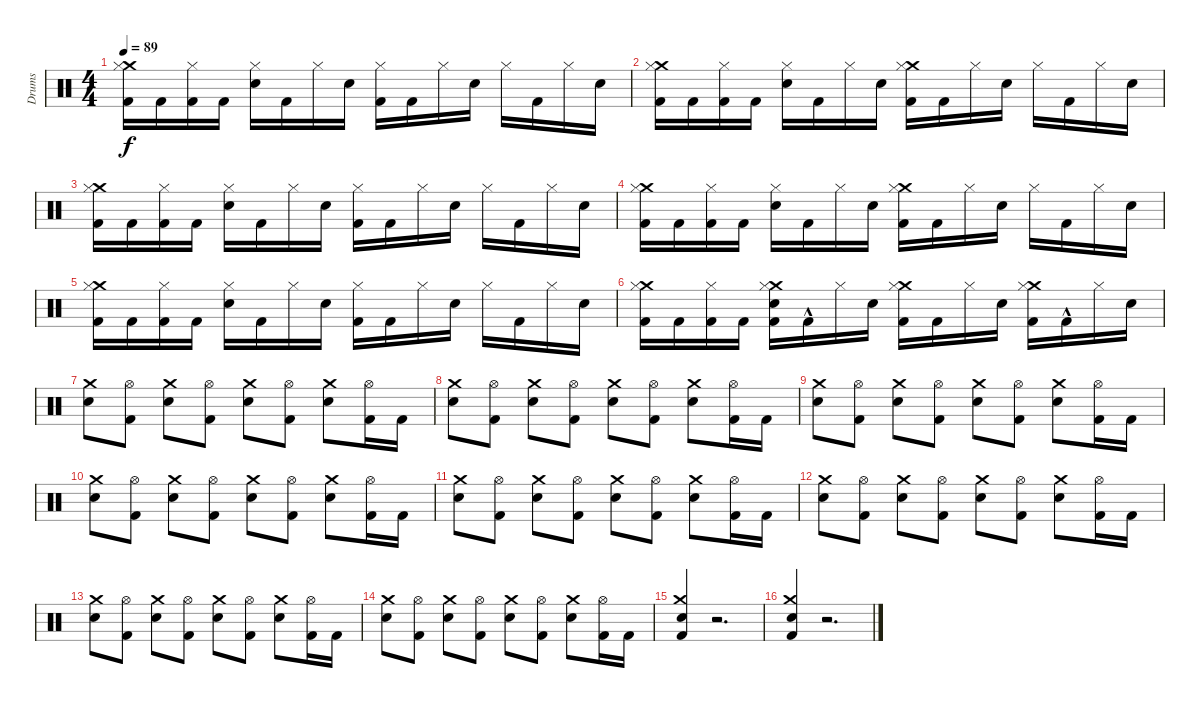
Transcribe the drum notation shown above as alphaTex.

\track ("Drums" "Drums") {instrument percussion}
\staff {score}
\articulation defaults
\ts (4 4)
\tempo 89
\clef neutral
\ks c
("Kick (hit) 2" "Crash medium (hit)" "Hi-Hat (closed)").16{dy f} "Kick (hit) 2".16 ("Kick (hit) 2" "Hi-Hat (closed)").16 "Kick (hit) 2".16 ("Snare (hit) 2" "Hi-Hat (closed)").16 "Kick (hit) 2".16 "Hi-Hat (closed)".16 "Snare (hit) 2".16 ("Kick (hit) 2" "Hi-Hat (closed)").16 "Kick (hit) 2".16 "Hi-Hat (closed)".16 "Snare (hit) 2".16 "Hi-Hat (closed)".16 "Kick (hit) 2".16 "Hi-Hat (closed)".16 "Snare (hit) 2".16 |
("Kick (hit) 2" "Crash medium (hit)" "Hi-Hat (closed)").16 "Kick (hit) 2".16 ("Kick (hit) 2" "Hi-Hat (closed)").16 "Kick (hit) 2".16 ("Snare (hit) 2" "Hi-Hat (closed)").16 "Kick (hit) 2".16 "Hi-Hat (closed)".16 "Snare (hit) 2".16 ("Kick (hit) 2" "Crash medium (hit)" "Hi-Hat (closed)").16 "Kick (hit) 2".16 "Hi-Hat (closed)".16 "Snare (hit) 2".16 "Hi-Hat (closed)".16 "Kick (hit) 2".16 "Hi-Hat (closed)".16 "Snare (hit) 2".16 |
("Kick (hit) 2" "Crash medium (hit)" "Hi-Hat (closed)").16 "Kick (hit) 2".16 ("Kick (hit) 2" "Hi-Hat (closed)").16 "Kick (hit) 2".16 ("Snare (hit) 2" "Hi-Hat (closed)").16 "Kick (hit) 2".16 "Hi-Hat (closed)".16 "Snare (hit) 2".16 ("Kick (hit) 2" "Hi-Hat (closed)").16 "Kick (hit) 2".16 "Hi-Hat (closed)".16 "Snare (hit) 2".16 "Hi-Hat (closed)".16 "Kick (hit) 2".16 "Hi-Hat (closed)".16 "Snare (hit) 2".16 |
("Kick (hit) 2" "Crash medium (hit)" "Hi-Hat (closed)").16 "Kick (hit) 2".16 ("Kick (hit) 2" "Hi-Hat (closed)").16 "Kick (hit) 2".16 ("Snare (hit) 2" "Hi-Hat (closed)").16 "Kick (hit) 2".16 "Hi-Hat (closed)".16 "Snare (hit) 2".16 ("Kick (hit) 2" "Crash medium (hit)" "Hi-Hat (closed)").16 "Kick (hit) 2".16 "Hi-Hat (closed)".16 "Snare (hit) 2".16 "Hi-Hat (closed)".16 "Kick (hit) 2".16 "Hi-Hat (closed)".16 "Snare (hit) 2".16 |
("Kick (hit) 2" "Crash medium (hit)" "Hi-Hat (closed)").16 "Kick (hit) 2".16 ("Kick (hit) 2" "Hi-Hat (closed)").16 "Kick (hit) 2".16 ("Snare (hit) 2" "Hi-Hat (closed)").16 "Kick (hit) 2".16 "Hi-Hat (closed)".16 "Snare (hit) 2".16 ("Kick (hit) 2" "Hi-Hat (closed)").16 "Kick (hit) 2".16 "Hi-Hat (closed)".16 "Snare (hit) 2".16 "Hi-Hat (closed)".16 "Kick (hit) 2".16 "Hi-Hat (closed)".16 "Snare (hit) 2".16 |
("Kick (hit) 2" "Crash medium (hit)" "Hi-Hat (closed)").16 "Kick (hit) 2".16 ("Kick (hit) 2" "Hi-Hat (closed)").16 "Kick (hit) 2".16 ("Kick (hit) 2" "Snare (hit) 2" "Crash medium (hit)" "Hi-Hat (closed)").16 "Kick (hit) 2"{hac}.16 "Hi-Hat (closed)".16 "Snare (hit) 2".16 ("Kick (hit) 2" "Crash medium (hit)" "Hi-Hat (closed)").16 "Kick (hit) 2".16 "Hi-Hat (closed)".16 "Snare (hit) 2".16 ("Kick (hit) 2" "Crash medium (hit)" "Hi-Hat (closed)").16 "Kick (hit) 2"{hac}.16 "Hi-Hat (closed)".16 "Snare (hit) 2".16 |
("Snare (hit) 2" "Crash medium (hit)").8 ("Hi-Hat (open)" "Kick (hit) 2").8 ("Snare (hit) 2" "Crash medium (hit)").8 ("Hi-Hat (open)" "Kick (hit) 2").8 ("Snare (hit) 2" "Crash medium (hit)").8 ("Hi-Hat (open)" "Kick (hit) 2").8 ("Snare (hit) 2" "Crash medium (hit)").8 ("Hi-Hat (open)" "Kick (hit) 2").16 "Kick (hit) 2".16 |
("Snare (hit) 2" "Crash medium (hit)").8 ("Hi-Hat (open)" "Kick (hit) 2").8 ("Snare (hit) 2" "Crash medium (hit)").8 ("Hi-Hat (open)" "Kick (hit) 2").8 ("Snare (hit) 2" "Crash medium (hit)").8 ("Hi-Hat (open)" "Kick (hit) 2").8 ("Snare (hit) 2" "Crash medium (hit)").8 ("Hi-Hat (open)" "Kick (hit) 2").16 "Kick (hit) 2".16 |
("Snare (hit) 2" "Crash medium (hit)").8 ("Hi-Hat (open)" "Kick (hit) 2").8 ("Snare (hit) 2" "Crash medium (hit)").8 ("Hi-Hat (open)" "Kick (hit) 2").8 ("Snare (hit) 2" "Crash medium (hit)").8 ("Hi-Hat (open)" "Kick (hit) 2").8 ("Snare (hit) 2" "Crash medium (hit)").8 ("Hi-Hat (open)" "Kick (hit) 2").16 "Kick (hit) 2".16 |
("Snare (hit) 2" "Crash medium (hit)").8 ("Hi-Hat (open)" "Kick (hit) 2").8 ("Snare (hit) 2" "Crash medium (hit)").8 ("Hi-Hat (open)" "Kick (hit) 2").8 ("Snare (hit) 2" "Crash medium (hit)").8 ("Hi-Hat (open)" "Kick (hit) 2").8 ("Snare (hit) 2" "Crash medium (hit)").8 ("Hi-Hat (open)" "Kick (hit) 2").16 "Kick (hit) 2".16 |
("Snare (hit) 2" "Crash medium (hit)").8 ("Hi-Hat (open)" "Kick (hit) 2").8 ("Snare (hit) 2" "Crash medium (hit)").8 ("Hi-Hat (open)" "Kick (hit) 2").8 ("Snare (hit) 2" "Crash medium (hit)").8 ("Hi-Hat (open)" "Kick (hit) 2").8 ("Snare (hit) 2" "Crash medium (hit)").8 ("Hi-Hat (open)" "Kick (hit) 2").16 "Kick (hit) 2".16 |
("Snare (hit) 2" "Crash medium (hit)").8 ("Hi-Hat (open)" "Kick (hit) 2").8 ("Snare (hit) 2" "Crash medium (hit)").8 ("Hi-Hat (open)" "Kick (hit) 2").8 ("Snare (hit) 2" "Crash medium (hit)").8 ("Hi-Hat (open)" "Kick (hit) 2").8 ("Snare (hit) 2" "Crash medium (hit)").8 ("Hi-Hat (open)" "Kick (hit) 2").16 "Kick (hit) 2".16 |
("Snare (hit) 2" "Crash medium (hit)").8 ("Hi-Hat (open)" "Kick (hit) 2").8 ("Snare (hit) 2" "Crash medium (hit)").8 ("Hi-Hat (open)" "Kick (hit) 2").8 ("Snare (hit) 2" "Crash medium (hit)").8 ("Hi-Hat (open)" "Kick (hit) 2").8 ("Snare (hit) 2" "Crash medium (hit)").8 ("Hi-Hat (open)" "Kick (hit) 2").16 "Kick (hit) 2".16 |
("Snare (hit) 2" "Crash medium (hit)").8 ("Hi-Hat (open)" "Kick (hit) 2").8 ("Snare (hit) 2" "Crash medium (hit)").8 ("Hi-Hat (open)" "Kick (hit) 2").8 ("Snare (hit) 2" "Crash medium (hit)").8 ("Hi-Hat (open)" "Kick (hit) 2").8 ("Snare (hit) 2" "Crash medium (hit)").8 ("Hi-Hat (open)" "Kick (hit) 2").16 "Kick (hit) 2".16 |
("Snare (hit) 2" "Crash medium (hit)" "Kick (hit) 2").4 r.2{d} |
("Snare (hit) 2" "Kick (hit) 2" "Crash medium (hit)").4 r.2{d}
